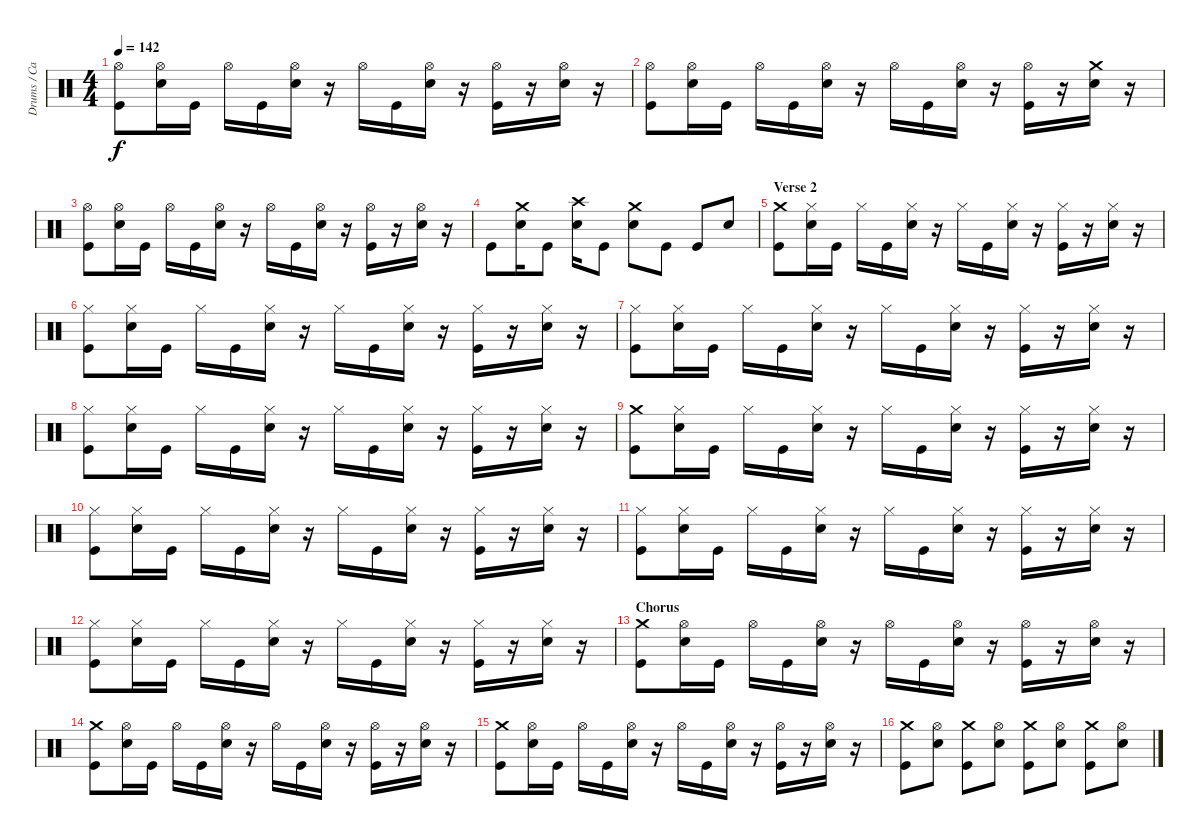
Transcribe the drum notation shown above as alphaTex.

\track ("Drums / Car " "Drums / Ca") {instrument percussion}
\staff {score}
\articulation defaults
\ts (4 4)
\tempo 142
\clef neutral
\ks c
("Hi-Hat (open)" "Kick (hit)").8{dy f} ("Hi-Hat (open)" "Electric Snare (hit)").16 "Kick (hit)".16 "Hi-Hat (open)".16 "Kick (hit)".16 ("Hi-Hat (open)" "Electric Snare (hit)").16 r.16 "Hi-Hat (open)".16 "Kick (hit)".16 ("Hi-Hat (open)" "Electric Snare (hit)").16 r.16 ("Hi-Hat (open)" "Kick (hit)").16 r.16 ("Hi-Hat (open)" "Electric Snare (hit)").16 r.16 |
("Hi-Hat (open)" "Kick (hit)").8 ("Hi-Hat (open)" "Electric Snare (hit)").16 "Kick (hit)".16 "Hi-Hat (open)".16 "Kick (hit)".16 ("Hi-Hat (open)" "Electric Snare (hit)").16 r.16 "Hi-Hat (open)".16 "Kick (hit)".16 ("Hi-Hat (open)" "Electric Snare (hit)").16 r.16 ("Hi-Hat (open)" "Kick (hit)").16 r.16 ("Crash medium (hit)" "Electric Snare (hit)").16 r.16 |
("Hi-Hat (open)" "Kick (hit)").8 ("Hi-Hat (open)" "Electric Snare (hit)").16 "Kick (hit)".16 "Hi-Hat (open)".16 "Kick (hit)".16 ("Hi-Hat (open)" "Electric Snare (hit)").16 r.16 "Hi-Hat (open)".16 "Kick (hit)".16 ("Hi-Hat (open)" "Electric Snare (hit)").16 r.16 ("Hi-Hat (open)" "Kick (hit)").16 r.16 ("Hi-Hat (open)" "Electric Snare (hit)").16 r.16 |
"Kick (hit)".8 ("Crash medium (hit)" "Electric Snare (hit)").16 "Kick (hit)".8 ("Crash high (hit)" "Electric Snare (hit)").16 "Kick (hit)".8 ("Crash medium (hit)" "Electric Snare (hit)").8 "Kick (hit)".8 "Kick (hit)".8 "Electric Snare (hit)".8 |
\section ("" "Verse 2")
("Crash medium (hit)" "Kick (hit)").8 ("Hi-Hat (closed)" "Electric Snare (hit)").16 "Kick (hit)".16 "Hi-Hat (closed)".16 "Kick (hit)".16 ("Hi-Hat (closed)" "Electric Snare (hit)").16 r.16 "Hi-Hat (closed)".16 "Kick (hit)".16 ("Hi-Hat (closed)" "Electric Snare (hit)").16 r.16 ("Hi-Hat (closed)" "Kick (hit)").16 r.16 ("Hi-Hat (closed)" "Electric Snare (hit)").16 r.16 |
("Hi-Hat (closed)" "Kick (hit)").8 ("Hi-Hat (closed)" "Electric Snare (hit)").16 "Kick (hit)".16 "Hi-Hat (closed)".16 "Kick (hit)".16 ("Hi-Hat (closed)" "Electric Snare (hit)").16 r.16 "Hi-Hat (closed)".16 "Kick (hit)".16 ("Hi-Hat (closed)" "Electric Snare (hit)").16 r.16 ("Hi-Hat (closed)" "Kick (hit)").16 r.16 ("Hi-Hat (closed)" "Electric Snare (hit)").16 r.16 |
("Hi-Hat (closed)" "Kick (hit)").8 ("Hi-Hat (closed)" "Electric Snare (hit)").16 "Kick (hit)".16 "Hi-Hat (closed)".16 "Kick (hit)".16 ("Hi-Hat (closed)" "Electric Snare (hit)").16 r.16 "Hi-Hat (closed)".16 "Kick (hit)".16 ("Hi-Hat (closed)" "Electric Snare (hit)").16 r.16 ("Hi-Hat (closed)" "Kick (hit)").16 r.16 ("Hi-Hat (closed)" "Electric Snare (hit)").16 r.16 |
("Hi-Hat (closed)" "Kick (hit)").8 ("Hi-Hat (closed)" "Electric Snare (hit)").16 "Kick (hit)".16 "Hi-Hat (closed)".16 "Kick (hit)".16 ("Hi-Hat (closed)" "Electric Snare (hit)").16 r.16 "Hi-Hat (closed)".16 "Kick (hit)".16 ("Hi-Hat (closed)" "Electric Snare (hit)").16 r.16 ("Hi-Hat (closed)" "Kick (hit)").16 r.16 ("Hi-Hat (closed)" "Electric Snare (hit)").16 r.16 |
("Crash medium (hit)" "Kick (hit)").8 ("Hi-Hat (closed)" "Electric Snare (hit)").16 "Kick (hit)".16 "Hi-Hat (closed)".16 "Kick (hit)".16 ("Hi-Hat (closed)" "Electric Snare (hit)").16 r.16 "Hi-Hat (closed)".16 "Kick (hit)".16 ("Hi-Hat (closed)" "Electric Snare (hit)").16 r.16 ("Hi-Hat (closed)" "Kick (hit)").16 r.16 ("Hi-Hat (closed)" "Electric Snare (hit)").16 r.16 |
("Hi-Hat (closed)" "Kick (hit)").8 ("Hi-Hat (closed)" "Electric Snare (hit)").16 "Kick (hit)".16 "Hi-Hat (closed)".16 "Kick (hit)".16 ("Hi-Hat (closed)" "Electric Snare (hit)").16 r.16 "Hi-Hat (closed)".16 "Kick (hit)".16 ("Hi-Hat (closed)" "Electric Snare (hit)").16 r.16 ("Hi-Hat (closed)" "Kick (hit)").16 r.16 ("Hi-Hat (closed)" "Electric Snare (hit)").16 r.16 |
("Hi-Hat (closed)" "Kick (hit)").8 ("Hi-Hat (closed)" "Electric Snare (hit)").16 "Kick (hit)".16 "Hi-Hat (closed)".16 "Kick (hit)".16 ("Hi-Hat (closed)" "Electric Snare (hit)").16 r.16 "Hi-Hat (closed)".16 "Kick (hit)".16 ("Hi-Hat (closed)" "Electric Snare (hit)").16 r.16 ("Hi-Hat (closed)" "Kick (hit)").16 r.16 ("Hi-Hat (closed)" "Electric Snare (hit)").16 r.16 |
("Hi-Hat (closed)" "Kick (hit)").8 ("Hi-Hat (closed)" "Electric Snare (hit)").16 "Kick (hit)".16 "Hi-Hat (closed)".16 "Kick (hit)".16 ("Hi-Hat (closed)" "Electric Snare (hit)").16 r.16 "Hi-Hat (closed)".16 "Kick (hit)".16 ("Hi-Hat (closed)" "Electric Snare (hit)").16 r.16 ("Hi-Hat (closed)" "Kick (hit)").16 r.16 ("Hi-Hat (closed)" "Electric Snare (hit)").16 r.16 |
\section ("" "Chorus")
("Crash medium (hit)" "Kick (hit)").8 ("Hi-Hat (open)" "Electric Snare (hit)").16 "Kick (hit)".16 "Hi-Hat (open)".16 "Kick (hit)".16 ("Hi-Hat (open)" "Electric Snare (hit)").16 r.16 "Hi-Hat (open)".16 "Kick (hit)".16 ("Hi-Hat (open)" "Electric Snare (hit)").16 r.16 ("Hi-Hat (open)" "Kick (hit)").16 r.16 ("Hi-Hat (open)" "Electric Snare (hit)").16 r.16 |
("Crash medium (hit)" "Kick (hit)").8 ("Hi-Hat (open)" "Electric Snare (hit)").16 "Kick (hit)".16 "Hi-Hat (open)".16 "Kick (hit)".16 ("Hi-Hat (open)" "Electric Snare (hit)").16 r.16 "Hi-Hat (open)".16 "Kick (hit)".16 ("Hi-Hat (open)" "Electric Snare (hit)").16 r.16 ("Hi-Hat (open)" "Kick (hit)").16 r.16 ("Hi-Hat (open)" "Electric Snare (hit)").16 r.16 |
("Crash medium (hit)" "Kick (hit)").8 ("Hi-Hat (open)" "Electric Snare (hit)").16 "Kick (hit)".16 "Hi-Hat (open)".16 "Kick (hit)".16 ("Hi-Hat (open)" "Electric Snare (hit)").16 r.16 "Hi-Hat (open)".16 "Kick (hit)".16 ("Hi-Hat (open)" "Electric Snare (hit)").16 r.16 ("Hi-Hat (open)" "Kick (hit)").16 r.16 ("Hi-Hat (open)" "Electric Snare (hit)").16 r.16 |
("Crash medium (hit)" "Kick (hit)").8 ("Hi-Hat (open)" "Electric Snare (hit)").8 ("Crash medium (hit)" "Kick (hit)").8 ("Hi-Hat (open)" "Electric Snare (hit)").8 ("Crash medium (hit)" "Kick (hit)").8 ("Hi-Hat (open)" "Electric Snare (hit)").8 ("Crash medium (hit)" "Kick (hit)").8 ("Hi-Hat (open)" "Electric Snare (hit)").8
